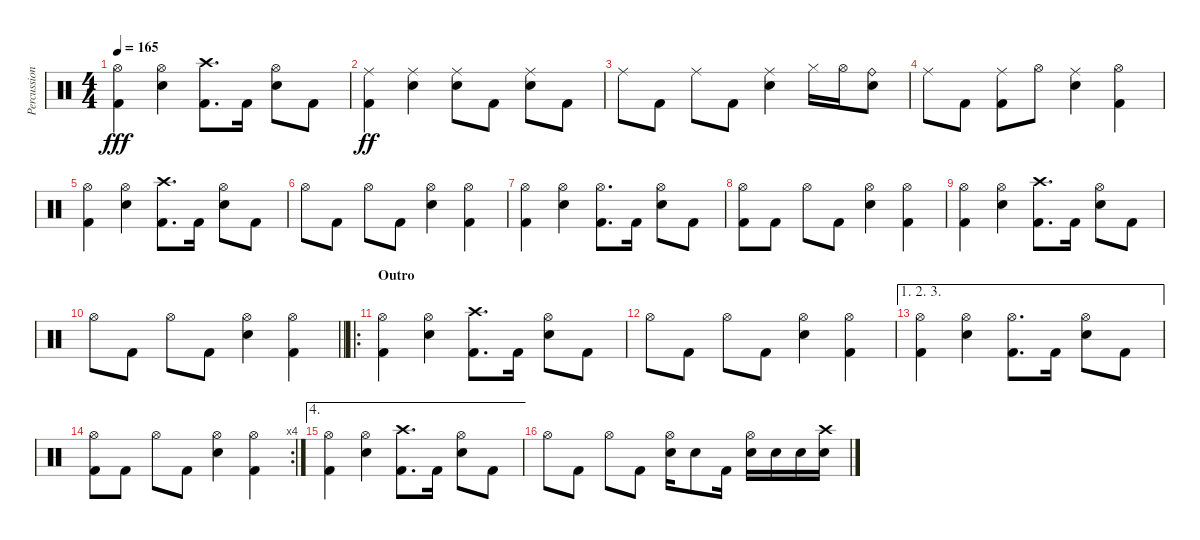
\track ("Percussions" "Percussion") {instrument percussion}
\staff {score}
\articulation defaults
\ts (4 4)
\tempo 165
\clef neutral
\ks c
("Hi-Hat (open)" "Kick (hit) 2").4{dy fff} ("Hi-Hat (open)" "Snare (hit) 2").4 ("Crash high (hit)" "Kick (hit) 2").8{d} "Kick (hit) 2".16 ("Hi-Hat (open)" "Snare (hit) 2").8 "Kick (hit) 2".8 |
("Ride (middle)" "Kick (hit) 2").4{dy ff} ("Ride (middle)" "Snare (hit) 2").4 ("Ride (middle)" "Snare (hit) 2").8 "Kick (hit) 2".8 ("Ride (middle)" "Snare (hit) 2").8 "Kick (hit) 2".8 |
"Ride (middle)".8 "Kick (hit) 2".8 "Ride (middle)".8 "Kick (hit) 2".8 ("Ride (middle)" "Snare (hit) 2").4 "Hi-Hat (closed)".16 "Hi-Hat (open)".16 ("Ride (bell)" "Snare (hit) 2").8 |
"Ride (middle)".8 "Kick (hit) 2".8 ("Ride (middle)" "Kick (hit) 2").8 "Hi-Hat (open)".8 ("Ride (middle)" "Snare (hit) 2").4 ("Hi-Hat (open)" "Kick (hit) 2").4 |
("Hi-Hat (open)" "Kick (hit) 2").4 ("Hi-Hat (open)" "Snare (hit) 2").4 ("Crash high (hit)" "Kick (hit) 2").8{d} "Kick (hit) 2".16 ("Hi-Hat (open)" "Snare (hit) 2").8 "Kick (hit) 2".8 |
"Hi-Hat (open)".8 "Kick (hit) 2".8 "Hi-Hat (open)".8 "Kick (hit) 2".8 ("Hi-Hat (open)" "Snare (hit) 2").4 ("Hi-Hat (open)" "Kick (hit) 2").4 |
("Hi-Hat (open)" "Kick (hit) 2").4 ("Hi-Hat (open)" "Snare (hit) 2").4 ("Hi-Hat (open)" "Kick (hit) 2").8{d} "Kick (hit) 2".16 ("Hi-Hat (open)" "Snare (hit) 2").8 "Kick (hit) 2".8 |
("Hi-Hat (open)" "Kick (hit) 2").8 "Kick (hit) 2".8 "Hi-Hat (open)".8 "Kick (hit) 2".8 ("Hi-Hat (open)" "Snare (hit) 2").4 ("Hi-Hat (open)" "Kick (hit) 2").4 |
("Hi-Hat (open)" "Kick (hit) 2").4 ("Hi-Hat (open)" "Snare (hit) 2").4 ("Crash high (hit)" "Kick (hit) 2").8{d} "Kick (hit) 2".16 ("Hi-Hat (open)" "Snare (hit) 2").8 "Kick (hit) 2".8 |
\barLineRight lightlight "Hi-Hat (open)".8 "Kick (hit) 2".8 "Hi-Hat (open)".8 "Kick (hit) 2".8
("Hi-Hat (open)" "Snare (hit) 2").4 ("Hi-Hat (open)" "Kick (hit) 2").4 |
\ro
\section ("" "Outro")
("Hi-Hat (open)" "Kick (hit) 2").4 ("Hi-Hat (open)" "Snare (hit) 2").4 ("Crash high (hit)" "Kick (hit) 2").8{d} "Kick (hit) 2".16 ("Hi-Hat (open)" "Snare (hit) 2").8 "Kick (hit) 2".8 |
"Hi-Hat (open)".8 "Kick (hit) 2".8 "Hi-Hat (open)".8 "Kick (hit) 2".8 ("Hi-Hat (open)" "Snare (hit) 2").4 ("Hi-Hat (open)" "Kick (hit) 2").4 |
\ae (1 2 3)
("Hi-Hat (open)" "Kick (hit) 2").4 ("Hi-Hat (open)" "Snare (hit) 2").4 ("Hi-Hat (open)" "Kick (hit) 2").8{d} "Kick (hit) 2".16 ("Hi-Hat (open)" "Snare (hit) 2").8 "Kick (hit) 2".8 |
\rc 4
("Hi-Hat (open)" "Kick (hit) 2").8 "Kick (hit) 2".8 "Hi-Hat (open)".8 "Kick (hit) 2".8 ("Hi-Hat (open)" "Snare (hit) 2").4 ("Hi-Hat (open)" "Kick (hit) 2").4 |
\ae 4
("Hi-Hat (open)" "Kick (hit) 2").4 ("Hi-Hat (open)" "Snare (hit) 2").4 ("Crash high (hit)" "Kick (hit) 2").8{d} "Kick (hit) 2".16 ("Hi-Hat (open)" "Snare (hit) 2").8 "Kick (hit) 2".8 |
"Hi-Hat (open)".8 "Kick (hit) 2".8 "Hi-Hat (open)".8 "Kick (hit) 2".8 ("Hi-Hat (open)" "Snare (hit) 2").16 "Snare (hit) 2".8 "Kick (hit) 2".16 ("Hi-Hat (open)" "Snare (hit) 2").16 "Snare (hit) 2".16 "Snare (hit) 2".16 ("Crash high (hit)" "Snare (hit) 2").16
